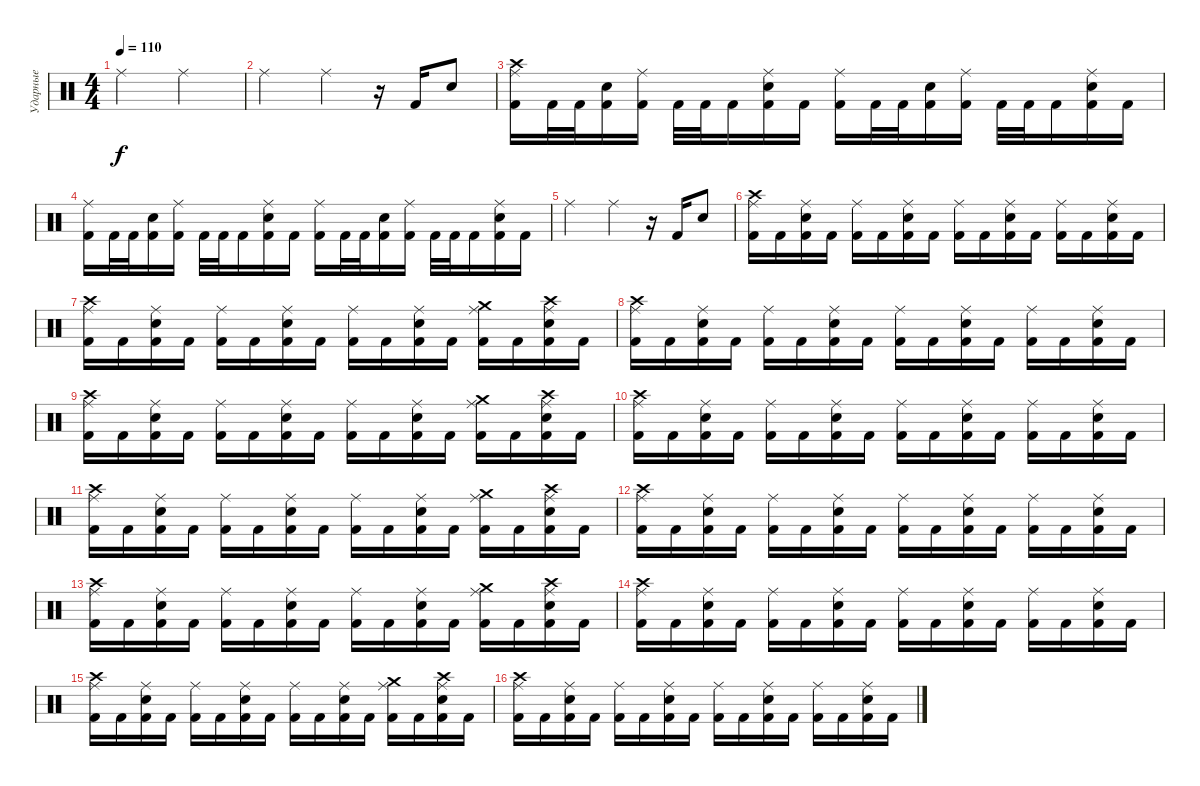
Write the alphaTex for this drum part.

\track ("Ударные" "Ударные") {instrument percussion}
\staff
\articulation defaults
\ts (4 4)
\tempo 110
\clef neutral
\ks c "Ride (middle)".2{dy f} "Ride (middle)".2
|
"Ride (middle)".2 "Ride (middle)".4 r.16 "Kick (hit) 2".16 "Snare (hit) 2".8 |
("Kick (hit) 2" "Ride (middle)" "Crash high (hit)").16 "Kick (hit) 2".32 "Kick (hit) 2".32 ("Kick (hit) 2" "Snare (hit) 2").16 ("Kick (hit) 2" "Ride (middle)").16 "Kick (hit) 2".32 "Kick (hit) 2".32 "Kick (hit) 2".16 ("Kick (hit) 2" "Ride (middle)" "Snare (hit) 2").16 "Kick (hit) 2".16 ("Kick (hit) 2" "Ride (middle)").16 "Kick (hit) 2".32 "Kick (hit) 2".32 ("Kick (hit) 2" "Snare (hit) 2").16 ("Kick (hit) 2" "Ride (middle)").16 "Kick (hit) 2".32 "Kick (hit) 2".32 "Kick (hit) 2".16 ("Kick (hit) 2" "Ride (middle)" "Snare (hit) 2").16 "Kick (hit) 2".16 |
("Kick (hit) 2" "Ride (middle)").16 "Kick (hit) 2".32 "Kick (hit) 2".32 ("Kick (hit) 2" "Snare (hit) 2").16 ("Kick (hit) 2" "Ride (middle)").16 "Kick (hit) 2".32 "Kick (hit) 2".32 "Kick (hit) 2".16 ("Kick (hit) 2" "Ride (middle)" "Snare (hit) 2").16 "Kick (hit) 2".16 ("Kick (hit) 2" "Ride (middle)").16 "Kick (hit) 2".32 "Kick (hit) 2".32 ("Kick (hit) 2" "Snare (hit) 2").16 ("Kick (hit) 2" "Ride (middle)").16 "Kick (hit) 2".32 "Kick (hit) 2".32 "Kick (hit) 2".16 ("Kick (hit) 2" "Ride (middle)" "Snare (hit) 2").16 "Kick (hit) 2".16 |
"Ride (middle)".2 "Ride (middle)".4 r.16 "Kick (hit) 2".16 "Snare (hit) 2".8 |
("Ride (middle)" "Kick (hit) 2" "Crash high (hit)").16 "Kick (hit) 2".16 ("Ride (middle)" "Snare (hit) 2" "Kick (hit) 2").16 "Kick (hit) 2".16 ("Ride (middle)" "Kick (hit) 2").16 "Kick (hit) 2".16 ("Ride (middle)" "Snare (hit) 2" "Kick (hit) 2").16 "Kick (hit) 2".16 ("Ride (middle)" "Kick (hit) 2").16 "Kick (hit) 2".16 ("Ride (middle)" "Snare (hit) 2" "Kick (hit) 2").16 "Kick (hit) 2".16 ("Ride (middle)" "Kick (hit) 2").16 "Kick (hit) 2".16 ("Ride (middle)" "Snare (hit) 2" "Kick (hit) 2").16 "Kick (hit) 2".16 |
("Ride (middle)" "Kick (hit) 2" "Crash high (hit)").16 "Kick (hit) 2".16 ("Ride (middle)" "Snare (hit) 2" "Kick (hit) 2").16 "Kick (hit) 2".16 ("Ride (middle)" "Kick (hit) 2").16 "Kick (hit) 2".16 ("Ride (middle)" "Snare (hit) 2" "Kick (hit) 2").16 "Kick (hit) 2".16 ("Ride (middle)" "Kick (hit) 2").16 "Kick (hit) 2".16 ("Ride (middle)" "Snare (hit) 2" "Kick (hit) 2").16 "Kick (hit) 2".16 ("Ride (middle)" "Kick (hit) 2" "Crash medium (hit)").16 "Kick (hit) 2".16 ("Ride (middle)" "Snare (hit) 2" "Kick (hit) 2" "Crash high (hit)").16 "Kick (hit) 2".16 |
("Ride (middle)" "Kick (hit) 2" "Crash high (hit)").16 "Kick (hit) 2".16 ("Ride (middle)" "Snare (hit) 2" "Kick (hit) 2").16 "Kick (hit) 2".16 ("Ride (middle)" "Kick (hit) 2").16 "Kick (hit) 2".16 ("Ride (middle)" "Snare (hit) 2" "Kick (hit) 2").16 "Kick (hit) 2".16 ("Ride (middle)" "Kick (hit) 2").16 "Kick (hit) 2".16 ("Ride (middle)" "Snare (hit) 2" "Kick (hit) 2").16 "Kick (hit) 2".16 ("Ride (middle)" "Kick (hit) 2").16 "Kick (hit) 2".16 ("Ride (middle)" "Snare (hit) 2" "Kick (hit) 2").16 "Kick (hit) 2".16 |
("Ride (middle)" "Kick (hit) 2" "Crash high (hit)").16 "Kick (hit) 2".16 ("Ride (middle)" "Snare (hit) 2" "Kick (hit) 2").16 "Kick (hit) 2".16 ("Ride (middle)" "Kick (hit) 2").16 "Kick (hit) 2".16 ("Ride (middle)" "Snare (hit) 2" "Kick (hit) 2").16 "Kick (hit) 2".16 ("Ride (middle)" "Kick (hit) 2").16 "Kick (hit) 2".16 ("Ride (middle)" "Snare (hit) 2" "Kick (hit) 2").16 "Kick (hit) 2".16 ("Ride (middle)" "Kick (hit) 2" "Crash medium (hit)").16 "Kick (hit) 2".16 ("Ride (middle)" "Snare (hit) 2" "Kick (hit) 2" "Crash high (hit)").16 "Kick (hit) 2".16 |
("Ride (middle)" "Kick (hit) 2" "Crash high (hit)").16 "Kick (hit) 2".16 ("Ride (middle)" "Snare (hit) 2" "Kick (hit) 2").16 "Kick (hit) 2".16 ("Ride (middle)" "Kick (hit) 2").16 "Kick (hit) 2".16 ("Ride (middle)" "Snare (hit) 2" "Kick (hit) 2").16 "Kick (hit) 2".16 ("Ride (middle)" "Kick (hit) 2").16 "Kick (hit) 2".16 ("Ride (middle)" "Snare (hit) 2" "Kick (hit) 2").16 "Kick (hit) 2".16 ("Ride (middle)" "Kick (hit) 2").16 "Kick (hit) 2".16 ("Ride (middle)" "Snare (hit) 2" "Kick (hit) 2").16 "Kick (hit) 2".16 |
("Ride (middle)" "Kick (hit) 2" "Crash high (hit)").16 "Kick (hit) 2".16 ("Ride (middle)" "Snare (hit) 2" "Kick (hit) 2").16 "Kick (hit) 2".16 ("Ride (middle)" "Kick (hit) 2").16 "Kick (hit) 2".16 ("Ride (middle)" "Snare (hit) 2" "Kick (hit) 2").16 "Kick (hit) 2".16 ("Ride (middle)" "Kick (hit) 2").16 "Kick (hit) 2".16 ("Ride (middle)" "Snare (hit) 2" "Kick (hit) 2").16 "Kick (hit) 2".16 ("Ride (middle)" "Kick (hit) 2" "Crash medium (hit)").16 "Kick (hit) 2".16 ("Ride (middle)" "Snare (hit) 2" "Kick (hit) 2" "Crash high (hit)").16 "Kick (hit) 2".16 |
("Ride (middle)" "Kick (hit) 2" "Crash high (hit)").16 "Kick (hit) 2".16 ("Ride (middle)" "Snare (hit) 2" "Kick (hit) 2").16 "Kick (hit) 2".16 ("Ride (middle)" "Kick (hit) 2").16 "Kick (hit) 2".16 ("Ride (middle)" "Snare (hit) 2" "Kick (hit) 2").16 "Kick (hit) 2".16 ("Ride (middle)" "Kick (hit) 2").16 "Kick (hit) 2".16 ("Ride (middle)" "Snare (hit) 2" "Kick (hit) 2").16 "Kick (hit) 2".16 ("Ride (middle)" "Kick (hit) 2").16 "Kick (hit) 2".16 ("Ride (middle)" "Snare (hit) 2" "Kick (hit) 2").16 "Kick (hit) 2".16 |
("Ride (middle)" "Kick (hit) 2" "Crash high (hit)").16 "Kick (hit) 2".16 ("Ride (middle)" "Snare (hit) 2" "Kick (hit) 2").16 "Kick (hit) 2".16 ("Ride (middle)" "Kick (hit) 2").16 "Kick (hit) 2".16 ("Ride (middle)" "Snare (hit) 2" "Kick (hit) 2").16 "Kick (hit) 2".16 ("Ride (middle)" "Kick (hit) 2").16 "Kick (hit) 2".16 ("Ride (middle)" "Snare (hit) 2" "Kick (hit) 2").16 "Kick (hit) 2".16 ("Ride (middle)" "Kick (hit) 2" "Crash medium (hit)").16 "Kick (hit) 2".16 ("Ride (middle)" "Snare (hit) 2" "Kick (hit) 2" "Crash high (hit)").16 "Kick (hit) 2".16 |
("Ride (middle)" "Kick (hit) 2" "Crash high (hit)").16 "Kick (hit) 2".16 ("Ride (middle)" "Snare (hit) 2" "Kick (hit) 2").16 "Kick (hit) 2".16 ("Ride (middle)" "Kick (hit) 2").16 "Kick (hit) 2".16 ("Ride (middle)" "Snare (hit) 2" "Kick (hit) 2").16 "Kick (hit) 2".16 ("Ride (middle)" "Kick (hit) 2").16 "Kick (hit) 2".16 ("Ride (middle)" "Snare (hit) 2" "Kick (hit) 2").16 "Kick (hit) 2".16 ("Ride (middle)" "Kick (hit) 2").16 "Kick (hit) 2".16 ("Ride (middle)" "Snare (hit) 2" "Kick (hit) 2").16 "Kick (hit) 2".16 |
("Ride (middle)" "Kick (hit) 2" "Crash high (hit)").16 "Kick (hit) 2".16 ("Ride (middle)" "Snare (hit) 2" "Kick (hit) 2").16 "Kick (hit) 2".16 ("Ride (middle)" "Kick (hit) 2").16 "Kick (hit) 2".16 ("Ride (middle)" "Snare (hit) 2" "Kick (hit) 2").16 "Kick (hit) 2".16 ("Ride (middle)" "Kick (hit) 2").16 "Kick (hit) 2".16 ("Ride (middle)" "Snare (hit) 2" "Kick (hit) 2").16 "Kick (hit) 2".16 ("Ride (middle)" "Kick (hit) 2" "Crash medium (hit)").16 "Kick (hit) 2".16 ("Ride (middle)" "Snare (hit) 2" "Kick (hit) 2" "Crash high (hit)").16 "Kick (hit) 2".16 |
("Ride (middle)" "Kick (hit) 2" "Crash high (hit)").16 "Kick (hit) 2".16 ("Ride (middle)" "Snare (hit) 2" "Kick (hit) 2").16 "Kick (hit) 2".16 ("Ride (middle)" "Kick (hit) 2").16 "Kick (hit) 2".16 ("Ride (middle)" "Snare (hit) 2" "Kick (hit) 2").16 "Kick (hit) 2".16 ("Ride (middle)" "Kick (hit) 2").16 "Kick (hit) 2".16 ("Ride (middle)" "Snare (hit) 2" "Kick (hit) 2").16 "Kick (hit) 2".16 ("Ride (middle)" "Kick (hit) 2").16 "Kick (hit) 2".16 ("Ride (middle)" "Snare (hit) 2" "Kick (hit) 2").16 "Kick (hit) 2".16
